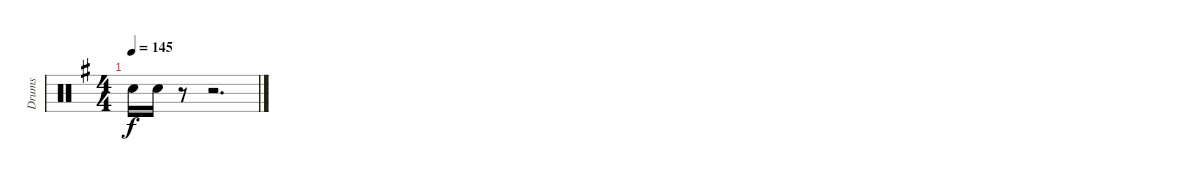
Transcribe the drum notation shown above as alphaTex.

\track ("Drums" "Drums") {instrument percussion}
\staff {score}
\articulation defaults
\ts (4 4)
\tempo 145
\clef neutral
\ks eminor "Electric Snare (hit)".16{dy f} "Electric Snare (hit)".16
r.8 r.2{d}
